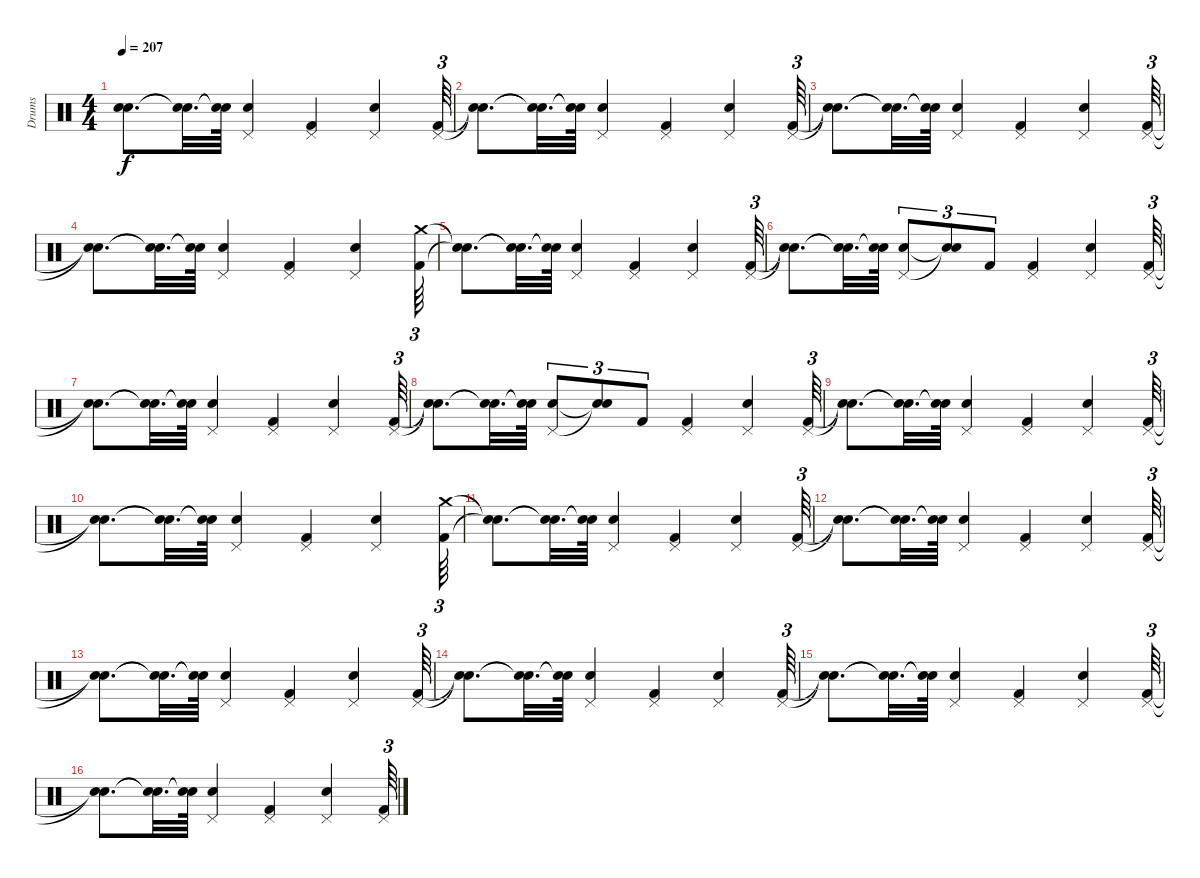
\track ("Drums" "Drums") {instrument percussion}
\staff {score}
\articulation defaults
\ts (4 4)
\tempo 207
\clef neutral
\ks c
("Snare (hit)"{t} "Snare (hit)"{t}).8{d dy f} ("Snare (hit)"{t} "Snare (hit)"{t}).32{d} ("Snare (hit)"{t} "Snare (hit)"{t}).64 ("Pedal Hi-Hat (hit)" "Snare (hit) 2").4 ("Pedal Hi-Hat (hit)" "Kick (hit) 2").4 ("Pedal Hi-Hat (hit)" "Snare (hit) 2").4 ("Pedal Hi-Hat (hit)" "Kick (hit) 2").64{tu (3 2)} |
("Snare (hit)"{t} "Snare (hit)"{t}).8{d} ("Snare (hit)"{t} "Snare (hit)"{t}).32{d} ("Snare (hit)"{t} "Snare (hit)"{t}).64 ("Pedal Hi-Hat (hit)" "Snare (hit) 2").4 ("Pedal Hi-Hat (hit)" "Kick (hit) 2").4 ("Pedal Hi-Hat (hit)" "Snare (hit) 2").4 ("Pedal Hi-Hat (hit)" "Kick (hit) 2").64{tu (3 2)} |
("Snare (hit)"{t} "Snare (hit)"{t}).8{d} ("Snare (hit)"{t} "Snare (hit)"{t}).32{d} ("Snare (hit)"{t} "Snare (hit)"{t}).64 ("Pedal Hi-Hat (hit)" "Snare (hit) 2").4 ("Pedal Hi-Hat (hit)" "Kick (hit) 2").4 ("Pedal Hi-Hat (hit)" "Snare (hit) 2").4 ("Pedal Hi-Hat (hit)" "Kick (hit) 2").64{tu (3 2)} |
("Snare (hit)"{t} "Snare (hit)"{t}).8{d} ("Snare (hit)"{t} "Snare (hit)"{t}).32{d} ("Snare (hit)"{t} "Snare (hit)"{t}).64 ("Pedal Hi-Hat (hit)" "Snare (hit) 2").4 ("Pedal Hi-Hat (hit)" "Kick (hit) 2").4 ("Pedal Hi-Hat (hit)" "Snare (hit) 2").4 ("Kick (hit) 2" "Crash medium (hit)").64{tu (3 2)} |
("Snare (hit)"{t} "Snare (hit)"{t}).8{d} ("Snare (hit)"{t} "Snare (hit)"{t}).32{d} ("Snare (hit)"{t} "Snare (hit)"{t}).64 ("Pedal Hi-Hat (hit)" "Snare (hit) 2").4 ("Pedal Hi-Hat (hit)" "Kick (hit) 2").4 ("Pedal Hi-Hat (hit)" "Snare (hit) 2").4 ("Pedal Hi-Hat (hit)" "Kick (hit) 2").64{tu (3 2)} |
("Snare (hit)"{t} "Snare (hit)"{t}).8{d} ("Snare (hit)"{t} "Snare (hit)"{t}).32{d} ("Snare (hit)"{t} "Snare (hit)"{t}).64 ("Pedal Hi-Hat (hit)" "Snare (hit) 2").8{tu (3 2)} ("Snare (hit)"{t} "Snare (hit)"{t}).8{tu (3 2)} "Kick (hit) 2".8{tu (3 2)} ("Pedal Hi-Hat (hit)" "Kick (hit) 2").4 ("Snare (hit) 2" "Pedal Hi-Hat (hit)").4 ("Pedal Hi-Hat (hit)" "Kick (hit) 2").64{tu (3 2)} |
("Snare (hit)"{t} "Snare (hit)"{t}).8{d} ("Snare (hit)"{t} "Snare (hit)"{t}).32{d} ("Snare (hit)"{t} "Snare (hit)"{t}).64 ("Pedal Hi-Hat (hit)" "Snare (hit) 2").4 ("Pedal Hi-Hat (hit)" "Kick (hit) 2").4 ("Pedal Hi-Hat (hit)" "Snare (hit) 2").4 ("Pedal Hi-Hat (hit)" "Kick (hit) 2").64{tu (3 2)} |
("Snare (hit)"{t} "Snare (hit)"{t}).8{d} ("Snare (hit)"{t} "Snare (hit)"{t}).32{d} ("Snare (hit)"{t} "Snare (hit)"{t}).64 ("Pedal Hi-Hat (hit)" "Snare (hit) 2").8{tu (3 2)} ("Snare (hit)"{t} "Snare (hit)"{t}).8{tu (3 2)} "Kick (hit) 2".8{tu (3 2)} ("Pedal Hi-Hat (hit)" "Kick (hit) 2").4 ("Pedal Hi-Hat (hit)" "Snare (hit) 2").4 ("Pedal Hi-Hat (hit)" "Kick (hit) 2").64{tu (3 2)} |
("Snare (hit)"{t} "Snare (hit)"{t}).8{d} ("Snare (hit)"{t} "Snare (hit)"{t}).32{d} ("Snare (hit)"{t} "Snare (hit)"{t}).64 ("Pedal Hi-Hat (hit)" "Snare (hit) 2").4 ("Pedal Hi-Hat (hit)" "Kick (hit) 2").4 ("Pedal Hi-Hat (hit)" "Snare (hit) 2").4 ("Pedal Hi-Hat (hit)" "Kick (hit) 2").64{tu (3 2)} |
("Snare (hit)"{t} "Snare (hit)"{t}).8{d} ("Snare (hit)"{t} "Snare (hit)"{t}).32{d} ("Snare (hit)"{t} "Snare (hit)"{t}).64 ("Pedal Hi-Hat (hit)" "Snare (hit) 2").4 ("Pedal Hi-Hat (hit)" "Kick (hit) 2").4 ("Pedal Hi-Hat (hit)" "Snare (hit) 2").4 ("Kick (hit) 2" "Crash medium (hit)").64{tu (3 2)} |
("Snare (hit)"{t} "Snare (hit)"{t}).8{d} ("Snare (hit)"{t} "Snare (hit)"{t}).32{d} ("Snare (hit)"{t} "Snare (hit)"{t}).64 ("Pedal Hi-Hat (hit)" "Snare (hit) 2").4 ("Pedal Hi-Hat (hit)" "Kick (hit) 2").4 ("Pedal Hi-Hat (hit)" "Snare (hit) 2").4 ("Pedal Hi-Hat (hit)" "Kick (hit) 2").64{tu (3 2)} |
("Snare (hit)"{t} "Snare (hit)"{t}).8{d} ("Snare (hit)"{t} "Snare (hit)"{t}).32{d} ("Snare (hit)"{t} "Snare (hit)"{t}).64 ("Pedal Hi-Hat (hit)" "Snare (hit) 2").4 ("Pedal Hi-Hat (hit)" "Kick (hit) 2").4 ("Pedal Hi-Hat (hit)" "Snare (hit) 2").4 ("Pedal Hi-Hat (hit)" "Kick (hit) 2").64{tu (3 2)} |
("Snare (hit)"{t} "Snare (hit)"{t}).8{d} ("Snare (hit)"{t} "Snare (hit)"{t}).32{d} ("Snare (hit)"{t} "Snare (hit)"{t}).64 ("Pedal Hi-Hat (hit)" "Snare (hit) 2").4 ("Pedal Hi-Hat (hit)" "Kick (hit) 2").4 ("Pedal Hi-Hat (hit)" "Snare (hit) 2").4 ("Pedal Hi-Hat (hit)" "Kick (hit) 2").64{tu (3 2)} |
("Snare (hit)"{t} "Snare (hit)"{t}).8{d} ("Snare (hit)"{t} "Snare (hit)"{t}).32{d} ("Snare (hit)"{t} "Snare (hit)"{t}).64 ("Pedal Hi-Hat (hit)" "Snare (hit) 2").4 ("Pedal Hi-Hat (hit)" "Kick (hit) 2").4 ("Pedal Hi-Hat (hit)" "Snare (hit) 2").4 ("Pedal Hi-Hat (hit)" "Kick (hit) 2").64{tu (3 2)} |
("Snare (hit)"{t} "Snare (hit)"{t}).8{d} ("Snare (hit)"{t} "Snare (hit)"{t}).32{d} ("Snare (hit)"{t} "Snare (hit)"{t}).64 ("Pedal Hi-Hat (hit)" "Snare (hit) 2").4 ("Pedal Hi-Hat (hit)" "Kick (hit) 2").4 ("Pedal Hi-Hat (hit)" "Snare (hit) 2").4 ("Pedal Hi-Hat (hit)" "Kick (hit) 2").64{tu (3 2)} |
("Snare (hit)"{t} "Snare (hit)"{t}).8{d} ("Snare (hit)"{t} "Snare (hit)"{t}).32{d} ("Snare (hit)"{t} "Snare (hit)"{t}).64 ("Pedal Hi-Hat (hit)" "Snare (hit) 2").4 ("Pedal Hi-Hat (hit)" "Kick (hit) 2").4 ("Pedal Hi-Hat (hit)" "Snare (hit) 2").4 ("Pedal Hi-Hat (hit)" "Kick (hit) 2").64{tu (3 2)}
